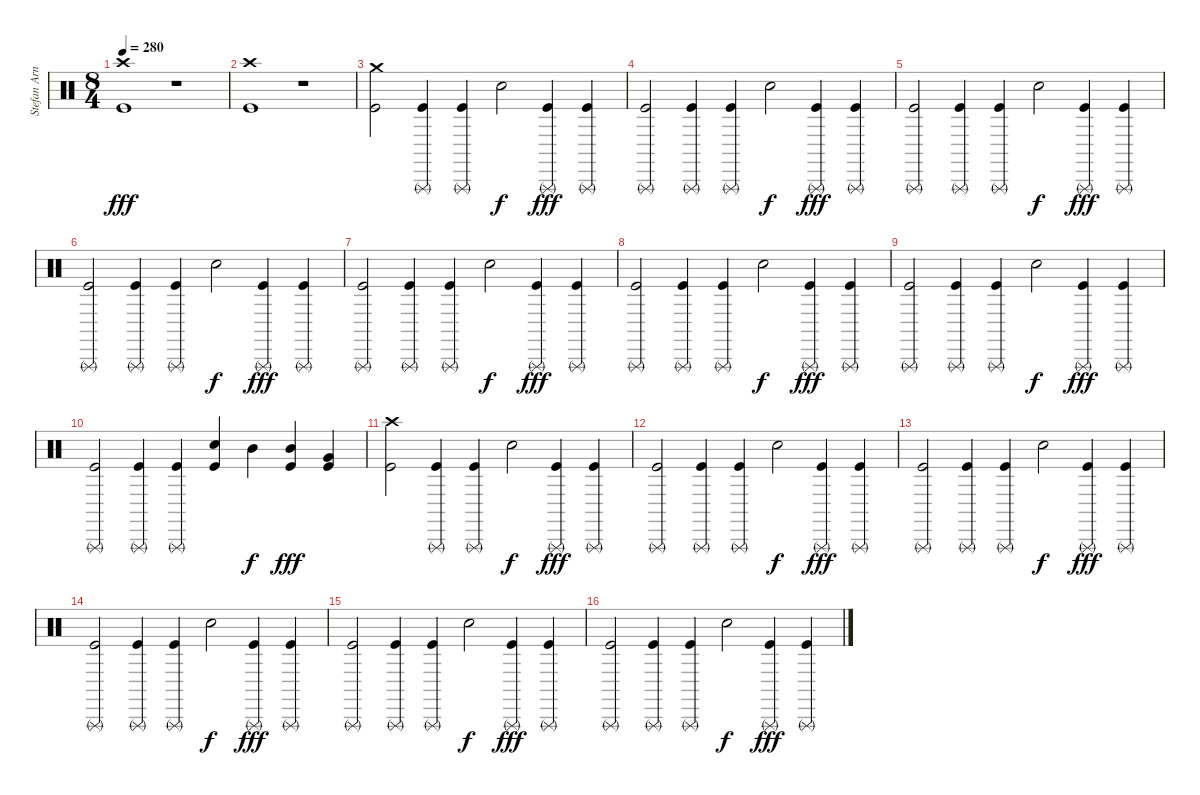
\track ("Stefan Arnold (Batería)" "Stefan Arn") {instrument percussion}
\staff {score}
\articulation defaults
\ts (8 4)
\tempo 280
\clef neutral
\ks c
("Crash high (hit)" "Kick (hit)").1{dy fff} r.1 |
("Crash high (hit)" "Kick (hit)").1 r.1 |
("Crash medium (hit)" "Kick (hit)").2 ("Triangle (rnute)" "Kick (hit)").4 ("Triangle (rnute)" "Kick (hit)").4 "Electric Snare (hit)".2{dy f} ("Triangle (rnute)" "Kick (hit)").4{dy fff} ("Triangle (rnute)" "Kick (hit)").4 |
("Triangle (rnute)" "Kick (hit)").2 ("Triangle (rnute)" "Kick (hit)").4 ("Triangle (rnute)" "Kick (hit)").4 "Electric Snare (hit)".2{dy f} ("Triangle (rnute)" "Kick (hit)").4{dy fff} ("Triangle (rnute)" "Kick (hit)").4 |
("Triangle (rnute)" "Kick (hit)").2 ("Triangle (rnute)" "Kick (hit)").4 ("Triangle (rnute)" "Kick (hit)").4 "Electric Snare (hit)".2{dy f} ("Triangle (rnute)" "Kick (hit)").4{dy fff} ("Triangle (rnute)" "Kick (hit)").4 |
("Triangle (rnute)" "Kick (hit)").2 ("Triangle (rnute)" "Kick (hit)").4 ("Triangle (rnute)" "Kick (hit)").4 "Electric Snare (hit)".2{dy f} ("Triangle (rnute)" "Kick (hit)").4{dy fff} ("Triangle (rnute)" "Kick (hit)").4 |
("Triangle (rnute)" "Kick (hit)").2 ("Triangle (rnute)" "Kick (hit)").4 ("Triangle (rnute)" "Kick (hit)").4 "Electric Snare (hit)".2{dy f} ("Triangle (rnute)" "Kick (hit)").4{dy fff} ("Triangle (rnute)" "Kick (hit)").4 |
("Triangle (rnute)" "Kick (hit)").2 ("Triangle (rnute)" "Kick (hit)").4 ("Triangle (rnute)" "Kick (hit)").4 "Electric Snare (hit)".2{dy f} ("Triangle (rnute)" "Kick (hit)").4{dy fff} ("Triangle (rnute)" "Kick (hit)").4 |
("Triangle (rnute)" "Kick (hit)").2 ("Triangle (rnute)" "Kick (hit)").4 ("Triangle (rnute)" "Kick (hit)").4 "Electric Snare (hit)".2{dy f} ("Triangle (rnute)" "Kick (hit)").4{dy fff} ("Triangle (rnute)" "Kick (hit)").4 |
("Triangle (rnute)" "Kick (hit)").2 ("Triangle (rnute)" "Kick (hit)").4 ("Triangle (rnute)" "Kick (hit)").4 ("Electric Snare (hit)" "Kick (hit)").4 "Mid Tom (hit)".4{dy f} ("Mid Tom (hit)" "Kick (hit)").4{dy fff} ("Very Low Tom (hit)" "Kick (hit)").4 |
("Crash high (hit)" "Kick (hit)").2 ("Triangle (rnute)" "Kick (hit)").4 ("Triangle (rnute)" "Kick (hit)").4 "Electric Snare (hit)".2{dy f} ("Triangle (rnute)" "Kick (hit)").4{dy fff} ("Triangle (rnute)" "Kick (hit)").4 |
("Triangle (rnute)" "Kick (hit)").2 ("Triangle (rnute)" "Kick (hit)").4 ("Triangle (rnute)" "Kick (hit)").4 "Electric Snare (hit)".2{dy f} ("Triangle (rnute)" "Kick (hit)").4{dy fff} ("Triangle (rnute)" "Kick (hit)").4 |
("Triangle (rnute)" "Kick (hit)").2 ("Triangle (rnute)" "Kick (hit)").4 ("Triangle (rnute)" "Kick (hit)").4 "Electric Snare (hit)".2{dy f} ("Triangle (rnute)" "Kick (hit)").4{dy fff} ("Triangle (rnute)" "Kick (hit)").4 |
("Triangle (rnute)" "Kick (hit)").2 ("Triangle (rnute)" "Kick (hit)").4 ("Triangle (rnute)" "Kick (hit)").4 "Electric Snare (hit)".2{dy f} ("Triangle (rnute)" "Kick (hit)").4{dy fff} ("Triangle (rnute)" "Kick (hit)").4 |
("Triangle (rnute)" "Kick (hit)").2 ("Triangle (rnute)" "Kick (hit)").4 ("Triangle (rnute)" "Kick (hit)").4 "Electric Snare (hit)".2{dy f} ("Triangle (rnute)" "Kick (hit)").4{dy fff} ("Triangle (rnute)" "Kick (hit)").4 |
("Triangle (rnute)" "Kick (hit)").2 ("Triangle (rnute)" "Kick (hit)").4 ("Triangle (rnute)" "Kick (hit)").4 "Electric Snare (hit)".2{dy f} ("Triangle (rnute)" "Kick (hit)").4{dy fff} ("Triangle (rnute)" "Kick (hit)").4
